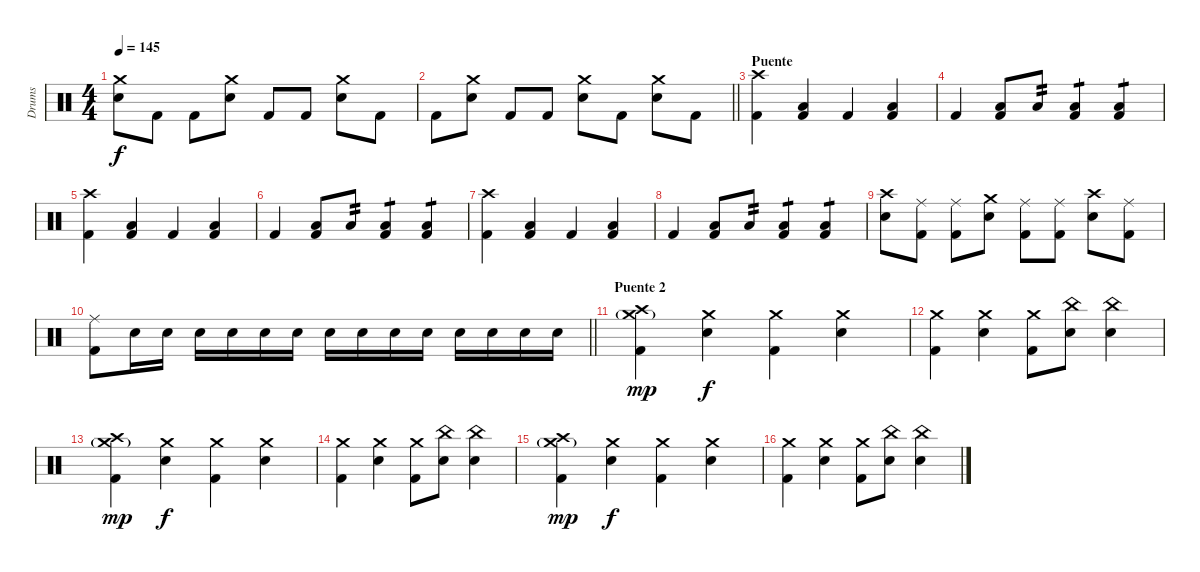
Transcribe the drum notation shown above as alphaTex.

\track ("Drums" "Drums") {instrument percussion}
\staff {score}
\articulation defaults
\ts (4 4)
\tempo 145
\clef neutral
\ks c
("Electric Snare (hit)" "Crash medium (hit)").8{dy f} "Kick (hit) 2".8 "Kick (hit) 2".8 ("Electric Snare (hit)" "Crash medium (hit)").8 "Kick (hit) 2".8 "Kick (hit) 2".8 ("Electric Snare (hit)" "Crash medium (hit)").8 "Kick (hit) 2".8 |
\barLineRight lightlight "Kick (hit) 2".8
("Electric Snare (hit)" "Crash medium (hit)").8 "Kick (hit) 2".8 "Kick (hit) 2".8 ("Electric Snare (hit)" "Crash medium (hit)").8 "Kick (hit) 2".8 ("Electric Snare (hit)" "Crash medium (hit)").8 "Kick (hit) 2".8 |
\section ("" "Puente")
("Kick (hit) 2" "Crash high (hit)").4 ("Kick (hit) 2" "Low Tom (hit)").4 "Kick (hit) 2".4 ("Kick (hit) 2" "Low Tom (hit)").4 |
"Kick (hit) 2".4 ("Kick (hit) 2" "Low Tom (hit)").8 "Low Tom (hit)".8{tp 2} ("Low Tom (hit)" "Kick (hit) 2").4{tp 1} ("Low Tom (hit)" "Kick (hit) 2").4{tp 1} |
("Kick (hit) 2" "Crash high (hit)").4 ("Kick (hit) 2" "Low Tom (hit)").4 "Kick (hit) 2".4 ("Kick (hit) 2" "Low Tom (hit)").4 |
"Kick (hit) 2".4 ("Kick (hit) 2" "Low Tom (hit)").8 "Low Tom (hit)".8{tp 2} ("Low Tom (hit)" "Kick (hit) 2").4{tp 1} ("Low Tom (hit)" "Kick (hit) 2").4{tp 1} |
("Kick (hit) 2" "Crash high (hit)").4 ("Kick (hit) 2" "Low Tom (hit)").4 "Kick (hit) 2".4 ("Kick (hit) 2" "Low Tom (hit)").4 |
"Kick (hit) 2".4 ("Kick (hit) 2" "Low Tom (hit)").8 "Low Tom (hit)".8{tp 2} ("Low Tom (hit)" "Kick (hit) 2").4{tp 1} ("Low Tom (hit)" "Kick (hit) 2").4{tp 1} |
("Electric Snare (hit)" "Crash high (hit)").8 ("Kick (hit) 2" "Ride (middle)").8 ("Kick (hit) 2" "Ride (middle)").8 ("Electric Snare (hit)" "Crash medium (hit)").8 ("Kick (hit) 2" "Ride (middle)").8 ("Kick (hit) 2" "Ride (middle)").8 ("Electric Snare (hit)" "Crash high (hit)").8 ("Kick (hit) 2" "Ride (middle)").8 |
\barLineRight lightlight
("Kick (hit) 2" "Ride (middle)").8 "Electric Snare (hit)".16 "Electric Snare (hit)".16 "Electric Snare (hit)".16 "Electric Snare (hit)".16 "Electric Snare (hit)".16 "Electric Snare (hit)".16 "Electric Snare (hit)".16 "Electric Snare (hit)".16 "Electric Snare (hit)".16 "Electric Snare (hit)".16 "Electric Snare (hit)".16 "Electric Snare (hit)".16 "Electric Snare (hit)".16 "Electric Snare (hit)".16 |
\section ("" "Puente 2")
("Kick (hit) 2" "Crash medium (hit)"{g} "Crash high (hit)").4{dy mp} ("Electric Snare (hit)" "Crash medium (hit)").4{dy f} ("Kick (hit) 2" "Crash medium (hit)").4 ("Electric Snare (hit)" "Crash medium (hit)").4 |
("Kick (hit) 2" "Crash medium (hit)").4 ("Electric Snare (hit)" "Crash medium (hit)").4 ("Kick (hit) 2" "Crash medium (hit)").8 ("Electric Snare (hit)" "China (hit)").8 ("Electric Snare (hit)" "China (hit)").4 |
("Kick (hit) 2" "Crash medium (hit)"{g} "Crash high (hit)").4{dy mp} ("Electric Snare (hit)" "Crash medium (hit)").4{dy f} ("Kick (hit) 2" "Crash medium (hit)").4 ("Electric Snare (hit)" "Crash medium (hit)").4 |
("Kick (hit) 2" "Crash medium (hit)").4 ("Electric Snare (hit)" "Crash medium (hit)").4 ("Kick (hit) 2" "Crash medium (hit)").8 ("Electric Snare (hit)" "China (hit)").8 ("Electric Snare (hit)" "China (hit)").4 |
("Kick (hit) 2" "Crash medium (hit)"{g} "Crash high (hit)").4{dy mp} ("Electric Snare (hit)" "Crash medium (hit)").4{dy f} ("Kick (hit) 2" "Crash medium (hit)").4 ("Electric Snare (hit)" "Crash medium (hit)").4 |
("Kick (hit) 2" "Crash medium (hit)").4 ("Electric Snare (hit)" "Crash medium (hit)").4 ("Kick (hit) 2" "Crash medium (hit)").8 ("Electric Snare (hit)" "China (hit)").8 ("Electric Snare (hit)" "China (hit)").4
